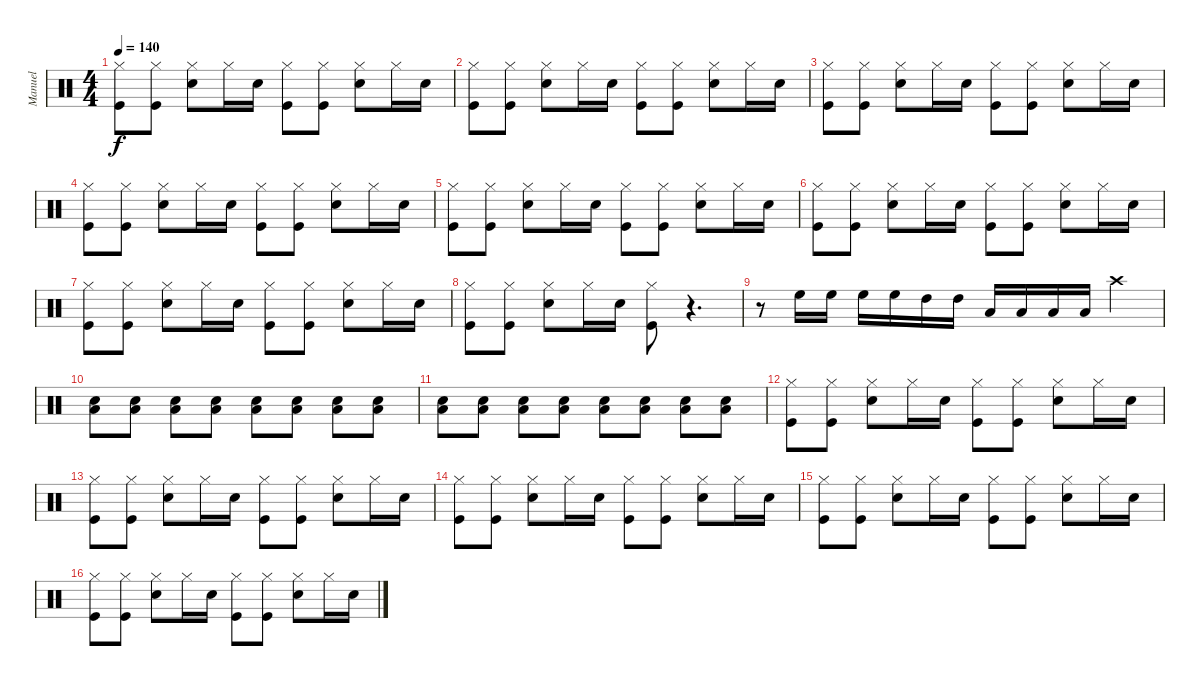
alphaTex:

\track ("Manuel" "Manuel") {instrument percussion}
\staff {score}
\articulation defaults
\ts (4 4)
\tempo 140
\clef neutral
\ks c
("Hi-Hat (closed)" "Kick (hit)").8{dy f} ("Hi-Hat (closed)" "Kick (hit)").8 ("Hi-Hat (closed)" "Snare (hit) 2").8 "Hi-Hat (closed)".16 "Snare (hit) 2".16 ("Hi-Hat (closed)" "Kick (hit)").8 ("Hi-Hat (closed)" "Kick (hit)").8 ("Hi-Hat (closed)" "Snare (hit) 2").8 "Hi-Hat (closed)".16 "Snare (hit) 2".16 |
("Hi-Hat (closed)" "Kick (hit)").8 ("Hi-Hat (closed)" "Kick (hit)").8 ("Hi-Hat (closed)" "Snare (hit) 2").8 "Hi-Hat (closed)".16 "Snare (hit) 2".16 ("Hi-Hat (closed)" "Kick (hit)").8 ("Hi-Hat (closed)" "Kick (hit)").8 ("Hi-Hat (closed)" "Snare (hit) 2").8 "Hi-Hat (closed)".16 "Snare (hit) 2".16 |
("Hi-Hat (closed)" "Kick (hit)").8 ("Hi-Hat (closed)" "Kick (hit)").8 ("Hi-Hat (closed)" "Snare (hit) 2").8 "Hi-Hat (closed)".16 "Snare (hit) 2".16 ("Hi-Hat (closed)" "Kick (hit)").8 ("Hi-Hat (closed)" "Kick (hit)").8 ("Hi-Hat (closed)" "Snare (hit) 2").8 "Hi-Hat (closed)".16 "Snare (hit) 2".16 |
("Hi-Hat (closed)" "Kick (hit)").8 ("Hi-Hat (closed)" "Kick (hit)").8 ("Hi-Hat (closed)" "Snare (hit) 2").8 "Hi-Hat (closed)".16 "Snare (hit) 2".16 ("Hi-Hat (closed)" "Kick (hit)").8 ("Hi-Hat (closed)" "Kick (hit)").8 ("Hi-Hat (closed)" "Snare (hit) 2").8 "Hi-Hat (closed)".16 "Snare (hit) 2".16 |
("Hi-Hat (closed)" "Kick (hit)").8 ("Hi-Hat (closed)" "Kick (hit)").8 ("Hi-Hat (closed)" "Snare (hit) 2").8 "Hi-Hat (closed)".16 "Snare (hit) 2".16 ("Hi-Hat (closed)" "Kick (hit)").8 ("Hi-Hat (closed)" "Kick (hit)").8 ("Hi-Hat (closed)" "Snare (hit) 2").8 "Hi-Hat (closed)".16 "Snare (hit) 2".16 |
("Hi-Hat (closed)" "Kick (hit)").8 ("Hi-Hat (closed)" "Kick (hit)").8 ("Hi-Hat (closed)" "Snare (hit) 2").8 "Hi-Hat (closed)".16 "Snare (hit) 2".16 ("Hi-Hat (closed)" "Kick (hit)").8 ("Hi-Hat (closed)" "Kick (hit)").8 ("Hi-Hat (closed)" "Snare (hit) 2").8 "Hi-Hat (closed)".16 "Snare (hit) 2".16 |
("Hi-Hat (closed)" "Kick (hit)").8 ("Hi-Hat (closed)" "Kick (hit)").8 ("Hi-Hat (closed)" "Snare (hit) 2").8 "Hi-Hat (closed)".16 "Snare (hit) 2".16 ("Hi-Hat (closed)" "Kick (hit)").8 ("Hi-Hat (closed)" "Kick (hit)").8 ("Hi-Hat (closed)" "Snare (hit) 2").8 "Hi-Hat (closed)".16 "Snare (hit) 2".16 |
("Hi-Hat (closed)" "Kick (hit)").8 ("Hi-Hat (closed)" "Kick (hit)").8 ("Hi-Hat (closed)" "Snare (hit) 2").8 "Hi-Hat (closed)".16 "Snare (hit) 2".16 ("Hi-Hat (closed)" "Kick (hit)").8 r.4{d} |
r.8 "High Floor Tom (hit)".16 "High Floor Tom (hit)".16 "High Floor Tom (hit)".16 "High Floor Tom (hit)".16 "High Tom (hit)".16 "High Tom (hit)".16 "Low Tom (hit)".16 "Low Tom (hit)".16 "Low Tom (hit)".16 "Low Tom (hit)".16 "Crash high (hit)".4 |
("Low Tom (hit)" "Electric Snare (hit)").8 ("Low Tom (hit)" "Electric Snare (hit)").8 ("Low Tom (hit)" "Electric Snare (hit)").8 ("Low Tom (hit)" "Electric Snare (hit)").8 ("Low Tom (hit)" "Electric Snare (hit)").8 ("Low Tom (hit)" "Electric Snare (hit)").8 ("Low Tom (hit)" "Electric Snare (hit)").8 ("Low Tom (hit)" "Electric Snare (hit)").8 |
("Low Tom (hit)" "Electric Snare (hit)").8 ("Low Tom (hit)" "Electric Snare (hit)").8 ("Low Tom (hit)" "Electric Snare (hit)").8 ("Low Tom (hit)" "Electric Snare (hit)").8 ("Low Tom (hit)" "Electric Snare (hit)").8 ("Low Tom (hit)" "Electric Snare (hit)").8 ("Low Tom (hit)" "Electric Snare (hit)").8 ("Low Tom (hit)" "Electric Snare (hit)").8 |
("Hi-Hat (closed)" "Kick (hit)").8 ("Hi-Hat (closed)" "Kick (hit)").8 ("Hi-Hat (closed)" "Snare (hit) 2").8 "Hi-Hat (closed)".16 "Snare (hit) 2".16 ("Hi-Hat (closed)" "Kick (hit)").8 ("Hi-Hat (closed)" "Kick (hit)").8 ("Hi-Hat (closed)" "Snare (hit) 2").8 "Hi-Hat (closed)".16 "Snare (hit) 2".16 |
("Hi-Hat (closed)" "Kick (hit)").8 ("Hi-Hat (closed)" "Kick (hit)").8 ("Hi-Hat (closed)" "Snare (hit) 2").8 "Hi-Hat (closed)".16 "Snare (hit) 2".16 ("Hi-Hat (closed)" "Kick (hit)").8 ("Hi-Hat (closed)" "Kick (hit)").8 ("Hi-Hat (closed)" "Snare (hit) 2").8 "Hi-Hat (closed)".16 "Snare (hit) 2".16 |
("Hi-Hat (closed)" "Kick (hit)").8 ("Hi-Hat (closed)" "Kick (hit)").8 ("Hi-Hat (closed)" "Snare (hit) 2").8 "Hi-Hat (closed)".16 "Snare (hit) 2".16 ("Hi-Hat (closed)" "Kick (hit)").8 ("Hi-Hat (closed)" "Kick (hit)").8 ("Hi-Hat (closed)" "Snare (hit) 2").8 "Hi-Hat (closed)".16 "Snare (hit) 2".16 |
("Hi-Hat (closed)" "Kick (hit)").8 ("Hi-Hat (closed)" "Kick (hit)").8 ("Hi-Hat (closed)" "Snare (hit) 2").8 "Hi-Hat (closed)".16 "Snare (hit) 2".16 ("Hi-Hat (closed)" "Kick (hit)").8 ("Hi-Hat (closed)" "Kick (hit)").8 ("Hi-Hat (closed)" "Snare (hit) 2").8 "Hi-Hat (closed)".16 "Snare (hit) 2".16 |
("Hi-Hat (closed)" "Kick (hit)").8 ("Hi-Hat (closed)" "Kick (hit)").8 ("Hi-Hat (closed)" "Snare (hit) 2").8 "Hi-Hat (closed)".16 "Snare (hit) 2".16 ("Hi-Hat (closed)" "Kick (hit)").8 ("Hi-Hat (closed)" "Kick (hit)").8 ("Hi-Hat (closed)" "Snare (hit) 2").8 "Hi-Hat (closed)".16 "Snare (hit) 2".16
